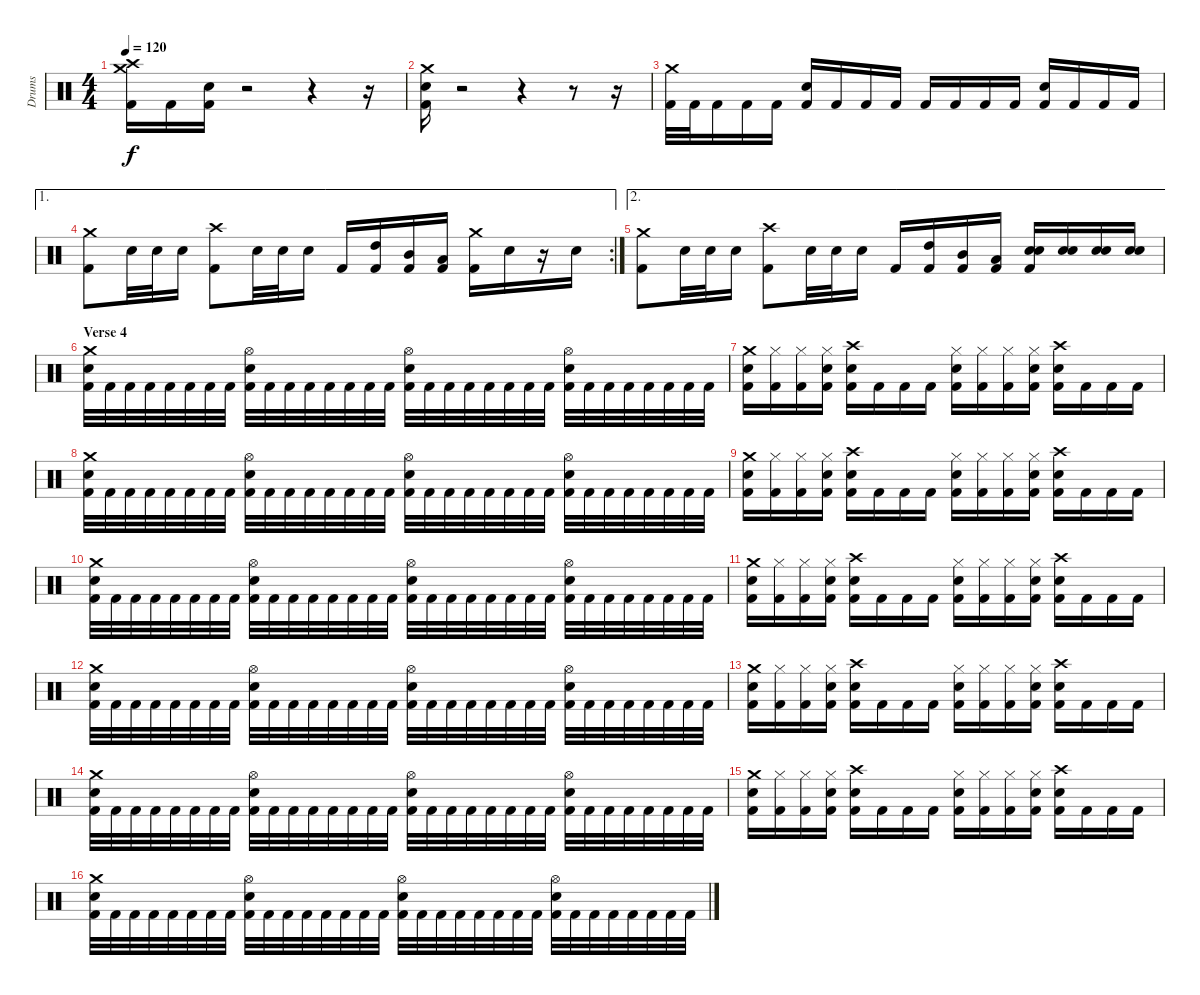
\track ("Drums" "Drums") {instrument percussion}
\staff {score}
\articulation defaults
\ts (4 4)
\tempo 120
\clef neutral
\ks c
("Crash medium (hit)" "Crash high (hit)" "Kick (hit) 2").16{dy f} "Kick (hit) 2".16 ("Snare (hit) 2" "Kick (hit) 2").16 r.2 r.4 r.16 |
("Crash medium (hit)" "Snare (hit) 2" "Kick (hit) 2").16 r.2 r.4 r.8 r.16 |
("Crash medium (hit)" "Kick (hit) 2").32 "Kick (hit) 2".32 "Kick (hit) 2".16 "Kick (hit) 2".16 "Kick (hit) 2".16 ("Snare (hit) 2" "Kick (hit) 2").16 "Kick (hit) 2".16 "Kick (hit) 2".16 "Kick (hit) 2".16 "Kick (hit) 2".16 "Kick (hit) 2".16 "Kick (hit) 2".16 "Kick (hit) 2".16 ("Snare (hit) 2" "Kick (hit) 2").16 "Kick (hit) 2".16 "Kick (hit) 2".16 "Kick (hit) 2".16 |
\ae 1
\rc 2
("Crash medium (hit)" "Kick (hit) 2").8 "Snare (hit) 2".32 "Snare (hit) 2".32 "Snare (hit) 2".16 ("Crash high (hit)" "Kick (hit) 2").8 "Snare (hit) 2".32 "Snare (hit) 2".32 "Snare (hit) 2".16 "Kick (hit) 2".16 ("High Tom (hit)" "Kick (hit) 2").16 ("Mid Tom (hit)" "Kick (hit) 2").16 ("Low Tom (hit)" "Kick (hit) 2").16 ("Crash medium (hit)" "Kick (hit) 2").16 "Snare (hit) 2".16 r.16 "Snare (hit) 2".16 |
\ae 2
("Crash medium (hit)" "Kick (hit) 2").8 "Snare (hit) 2".32 "Snare (hit) 2".32 "Snare (hit) 2".16 ("Crash high (hit)" "Kick (hit) 2").8 "Snare (hit) 2".32 "Snare (hit) 2".32 "Snare (hit) 2".16 "Kick (hit) 2".16 ("High Tom (hit)" "Kick (hit) 2").16 ("Mid Tom (hit)" "Kick (hit) 2").16 ("Low Tom (hit)" "Kick (hit) 2").16 ("Snare (hit) 2" "Snare (hit) 2" "Kick (hit) 2").16 ("Snare (hit) 2" "Snare (hit) 2").16 ("Snare (hit) 2" "Snare (hit) 2").16 ("Snare (hit) 2" "Snare (hit) 2").16 |
\section ("" "Verse 4")
("Crash medium (hit)" "Snare (hit) 2" "Kick (hit) 2").32 "Kick (hit) 2".32 "Kick (hit) 2".32 "Kick (hit) 2".32 "Kick (hit) 2".32 "Kick (hit) 2".32 "Kick (hit) 2".32 "Kick (hit) 2".32 ("Hi-Hat (open)" "Snare (hit) 2" "Kick (hit) 2").32 "Kick (hit) 2".32 "Kick (hit) 2".32 "Kick (hit) 2".32 "Kick (hit) 2".32 "Kick (hit) 2".32 "Kick (hit) 2".32 "Kick (hit) 2".32 ("Hi-Hat (open)" "Snare (hit) 2" "Kick (hit) 2").32 "Kick (hit) 2".32 "Kick (hit) 2".32 "Kick (hit) 2".32 "Kick (hit) 2".32 "Kick (hit) 2".32 "Kick (hit) 2".32 "Kick (hit) 2".32 ("Hi-Hat (open)" "Snare (hit) 2" "Kick (hit) 2").32 "Kick (hit) 2".32 "Kick (hit) 2".32 "Kick (hit) 2".32 "Kick (hit) 2".32 "Kick (hit) 2".32 "Kick (hit) 2".32 "Kick (hit) 2".32 |
("Crash medium (hit)" "Snare (hit) 2" "Kick (hit) 2").16 ("Hi-Hat (closed)" "Kick (hit) 2").16 ("Hi-Hat (closed)" "Kick (hit) 2").16 ("Hi-Hat (closed)" "Snare (hit) 2" "Kick (hit) 2").16 ("Crash high (hit)" "Snare (hit) 2" "Kick (hit) 2").16 "Kick (hit) 2".16 "Kick (hit) 2".16 "Kick (hit) 2".16 ("Hi-Hat (closed)" "Snare (hit) 2" "Kick (hit) 2").16 ("Hi-Hat (closed)" "Kick (hit) 2").16 ("Hi-Hat (closed)" "Kick (hit) 2").16 ("Hi-Hat (closed)" "Snare (hit) 2" "Kick (hit) 2").16 ("Crash high (hit)" "Snare (hit) 2" "Kick (hit) 2").16 "Kick (hit) 2".16 "Kick (hit) 2".16 "Kick (hit) 2".16 |
("Crash medium (hit)" "Snare (hit) 2" "Kick (hit) 2").32 "Kick (hit) 2".32 "Kick (hit) 2".32 "Kick (hit) 2".32 "Kick (hit) 2".32 "Kick (hit) 2".32 "Kick (hit) 2".32 "Kick (hit) 2".32 ("Hi-Hat (open)" "Snare (hit) 2" "Kick (hit) 2").32 "Kick (hit) 2".32 "Kick (hit) 2".32 "Kick (hit) 2".32 "Kick (hit) 2".32 "Kick (hit) 2".32 "Kick (hit) 2".32 "Kick (hit) 2".32 ("Hi-Hat (open)" "Snare (hit) 2" "Kick (hit) 2").32 "Kick (hit) 2".32 "Kick (hit) 2".32 "Kick (hit) 2".32 "Kick (hit) 2".32 "Kick (hit) 2".32 "Kick (hit) 2".32 "Kick (hit) 2".32 ("Hi-Hat (open)" "Snare (hit) 2" "Kick (hit) 2").32 "Kick (hit) 2".32 "Kick (hit) 2".32 "Kick (hit) 2".32 "Kick (hit) 2".32 "Kick (hit) 2".32 "Kick (hit) 2".32 "Kick (hit) 2".32 |
("Crash medium (hit)" "Snare (hit) 2" "Kick (hit) 2").16 ("Hi-Hat (closed)" "Kick (hit) 2").16 ("Hi-Hat (closed)" "Kick (hit) 2").16 ("Hi-Hat (closed)" "Snare (hit) 2" "Kick (hit) 2").16 ("Crash high (hit)" "Snare (hit) 2" "Kick (hit) 2").16 "Kick (hit) 2".16 "Kick (hit) 2".16 "Kick (hit) 2".16 ("Hi-Hat (closed)" "Snare (hit) 2" "Kick (hit) 2").16 ("Hi-Hat (closed)" "Kick (hit) 2").16 ("Hi-Hat (closed)" "Kick (hit) 2").16 ("Hi-Hat (closed)" "Snare (hit) 2" "Kick (hit) 2").16 ("Crash high (hit)" "Snare (hit) 2" "Kick (hit) 2").16 "Kick (hit) 2".16 "Kick (hit) 2".16 "Kick (hit) 2".16 |
("Crash medium (hit)" "Snare (hit) 2" "Kick (hit) 2").32 "Kick (hit) 2".32 "Kick (hit) 2".32 "Kick (hit) 2".32 "Kick (hit) 2".32 "Kick (hit) 2".32 "Kick (hit) 2".32 "Kick (hit) 2".32 ("Hi-Hat (open)" "Snare (hit) 2" "Kick (hit) 2").32 "Kick (hit) 2".32 "Kick (hit) 2".32 "Kick (hit) 2".32 "Kick (hit) 2".32 "Kick (hit) 2".32 "Kick (hit) 2".32 "Kick (hit) 2".32 ("Hi-Hat (open)" "Snare (hit) 2" "Kick (hit) 2").32 "Kick (hit) 2".32 "Kick (hit) 2".32 "Kick (hit) 2".32 "Kick (hit) 2".32 "Kick (hit) 2".32 "Kick (hit) 2".32 "Kick (hit) 2".32 ("Hi-Hat (open)" "Snare (hit) 2" "Kick (hit) 2").32 "Kick (hit) 2".32 "Kick (hit) 2".32 "Kick (hit) 2".32 "Kick (hit) 2".32 "Kick (hit) 2".32 "Kick (hit) 2".32 "Kick (hit) 2".32 |
("Crash medium (hit)" "Snare (hit) 2" "Kick (hit) 2").16 ("Hi-Hat (closed)" "Kick (hit) 2").16 ("Hi-Hat (closed)" "Kick (hit) 2").16 ("Hi-Hat (closed)" "Snare (hit) 2" "Kick (hit) 2").16 ("Crash high (hit)" "Snare (hit) 2" "Kick (hit) 2").16 "Kick (hit) 2".16 "Kick (hit) 2".16 "Kick (hit) 2".16 ("Hi-Hat (closed)" "Snare (hit) 2" "Kick (hit) 2").16 ("Hi-Hat (closed)" "Kick (hit) 2").16 ("Hi-Hat (closed)" "Kick (hit) 2").16 ("Hi-Hat (closed)" "Snare (hit) 2" "Kick (hit) 2").16 ("Crash high (hit)" "Snare (hit) 2" "Kick (hit) 2").16 "Kick (hit) 2".16 "Kick (hit) 2".16 "Kick (hit) 2".16 |
("Crash medium (hit)" "Snare (hit) 2" "Kick (hit) 2").32 "Kick (hit) 2".32 "Kick (hit) 2".32 "Kick (hit) 2".32 "Kick (hit) 2".32 "Kick (hit) 2".32 "Kick (hit) 2".32 "Kick (hit) 2".32 ("Hi-Hat (open)" "Snare (hit) 2" "Kick (hit) 2").32 "Kick (hit) 2".32 "Kick (hit) 2".32 "Kick (hit) 2".32 "Kick (hit) 2".32 "Kick (hit) 2".32 "Kick (hit) 2".32 "Kick (hit) 2".32 ("Hi-Hat (open)" "Snare (hit) 2" "Kick (hit) 2").32 "Kick (hit) 2".32 "Kick (hit) 2".32 "Kick (hit) 2".32 "Kick (hit) 2".32 "Kick (hit) 2".32 "Kick (hit) 2".32 "Kick (hit) 2".32 ("Hi-Hat (open)" "Snare (hit) 2" "Kick (hit) 2").32 "Kick (hit) 2".32 "Kick (hit) 2".32 "Kick (hit) 2".32 "Kick (hit) 2".32 "Kick (hit) 2".32 "Kick (hit) 2".32 "Kick (hit) 2".32 |
("Crash medium (hit)" "Snare (hit) 2" "Kick (hit) 2").16 ("Hi-Hat (closed)" "Kick (hit) 2").16 ("Hi-Hat (closed)" "Kick (hit) 2").16 ("Hi-Hat (closed)" "Snare (hit) 2" "Kick (hit) 2").16 ("Crash high (hit)" "Snare (hit) 2" "Kick (hit) 2").16 "Kick (hit) 2".16 "Kick (hit) 2".16 "Kick (hit) 2".16 ("Hi-Hat (closed)" "Snare (hit) 2" "Kick (hit) 2").16 ("Hi-Hat (closed)" "Kick (hit) 2").16 ("Hi-Hat (closed)" "Kick (hit) 2").16 ("Hi-Hat (closed)" "Snare (hit) 2" "Kick (hit) 2").16 ("Crash high (hit)" "Snare (hit) 2" "Kick (hit) 2").16 "Kick (hit) 2".16 "Kick (hit) 2".16 "Kick (hit) 2".16 |
("Crash medium (hit)" "Snare (hit) 2" "Kick (hit) 2").32 "Kick (hit) 2".32 "Kick (hit) 2".32 "Kick (hit) 2".32 "Kick (hit) 2".32 "Kick (hit) 2".32 "Kick (hit) 2".32 "Kick (hit) 2".32 ("Hi-Hat (open)" "Snare (hit) 2" "Kick (hit) 2").32 "Kick (hit) 2".32 "Kick (hit) 2".32 "Kick (hit) 2".32 "Kick (hit) 2".32 "Kick (hit) 2".32 "Kick (hit) 2".32 "Kick (hit) 2".32 ("Hi-Hat (open)" "Snare (hit) 2" "Kick (hit) 2").32 "Kick (hit) 2".32 "Kick (hit) 2".32 "Kick (hit) 2".32 "Kick (hit) 2".32 "Kick (hit) 2".32 "Kick (hit) 2".32 "Kick (hit) 2".32 ("Hi-Hat (open)" "Snare (hit) 2" "Kick (hit) 2").32 "Kick (hit) 2".32 "Kick (hit) 2".32 "Kick (hit) 2".32 "Kick (hit) 2".32 "Kick (hit) 2".32 "Kick (hit) 2".32 "Kick (hit) 2".32 |
("Crash medium (hit)" "Snare (hit) 2" "Kick (hit) 2").16 ("Hi-Hat (closed)" "Kick (hit) 2").16 ("Hi-Hat (closed)" "Kick (hit) 2").16 ("Hi-Hat (closed)" "Snare (hit) 2" "Kick (hit) 2").16 ("Crash high (hit)" "Snare (hit) 2" "Kick (hit) 2").16 "Kick (hit) 2".16 "Kick (hit) 2".16 "Kick (hit) 2".16 ("Hi-Hat (closed)" "Snare (hit) 2" "Kick (hit) 2").16 ("Hi-Hat (closed)" "Kick (hit) 2").16 ("Hi-Hat (closed)" "Kick (hit) 2").16 ("Hi-Hat (closed)" "Snare (hit) 2" "Kick (hit) 2").16 ("Crash high (hit)" "Snare (hit) 2" "Kick (hit) 2").16 "Kick (hit) 2".16 "Kick (hit) 2".16 "Kick (hit) 2".16 |
("Crash medium (hit)" "Snare (hit) 2" "Kick (hit) 2").32 "Kick (hit) 2".32 "Kick (hit) 2".32 "Kick (hit) 2".32 "Kick (hit) 2".32 "Kick (hit) 2".32 "Kick (hit) 2".32 "Kick (hit) 2".32 ("Hi-Hat (open)" "Snare (hit) 2" "Kick (hit) 2").32 "Kick (hit) 2".32 "Kick (hit) 2".32 "Kick (hit) 2".32 "Kick (hit) 2".32 "Kick (hit) 2".32 "Kick (hit) 2".32 "Kick (hit) 2".32 ("Hi-Hat (open)" "Snare (hit) 2" "Kick (hit) 2").32 "Kick (hit) 2".32 "Kick (hit) 2".32 "Kick (hit) 2".32 "Kick (hit) 2".32 "Kick (hit) 2".32 "Kick (hit) 2".32 "Kick (hit) 2".32 ("Hi-Hat (open)" "Snare (hit) 2" "Kick (hit) 2").32 "Kick (hit) 2".32 "Kick (hit) 2".32 "Kick (hit) 2".32 "Kick (hit) 2".32 "Kick (hit) 2".32 "Kick (hit) 2".32 "Kick (hit) 2".32
